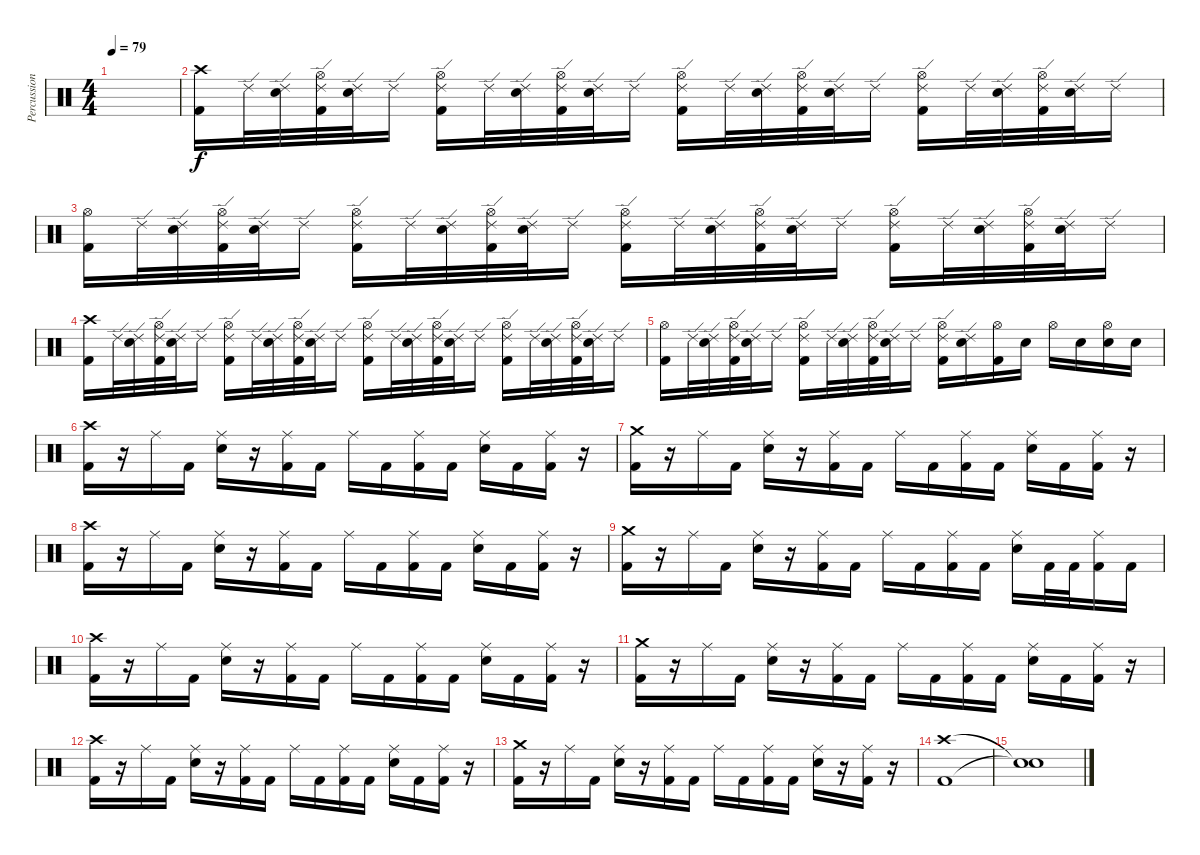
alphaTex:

\track ("Percussion" "Percussion") {instrument percussion}
\staff {score}
\articulation defaults
\ts (4 4)
\tempo 79
\clef neutral
\ks c
|
("Crash high (hit)" "Kick (hit) 2").16 "Ride (edge) 2".32 ("Ride (edge) 2" "Electric Snare (hit)").32 ("Hi-Hat (open)" "Ride (edge) 2" "Kick (hit) 2").32 ("Ride (edge) 2" "Electric Snare (hit)").32 "Ride (edge) 2".16 ("Hi-Hat (open)" "Ride (edge) 2" "Kick (hit) 2").16 "Ride (edge) 2".32 ("Ride (edge) 2" "Electric Snare (hit)").32 ("Hi-Hat (open)" "Ride (edge) 2" "Kick (hit) 2").32 ("Ride (edge) 2" "Electric Snare (hit)").32 "Ride (edge) 2".16 ("Hi-Hat (open)" "Ride (edge) 2" "Kick (hit) 2").16 "Ride (edge) 2".32 ("Ride (edge) 2" "Electric Snare (hit)").32 ("Hi-Hat (open)" "Ride (edge) 2" "Kick (hit) 2").32 ("Ride (edge) 2" "Electric Snare (hit)").32 "Ride (edge) 2".16 ("Hi-Hat (open)" "Ride (edge) 2" "Kick (hit) 2").16 "Ride (edge) 2".32 ("Ride (edge) 2" "Electric Snare (hit)").32 ("Hi-Hat (open)" "Ride (edge) 2" "Kick (hit) 2").32 ("Ride (edge) 2" "Electric Snare (hit)").32 "Ride (edge) 2".16 |
("Hi-Hat (open)" "Kick (hit) 2").16 "Ride (edge) 2".32 ("Ride (edge) 2" "Electric Snare (hit)").32 ("Hi-Hat (open)" "Ride (edge) 2" "Kick (hit) 2").32 ("Ride (edge) 2" "Electric Snare (hit)").32 "Ride (edge) 2".16 ("Hi-Hat (open)" "Ride (edge) 2" "Kick (hit) 2").16 "Ride (edge) 2".32 ("Ride (edge) 2" "Electric Snare (hit)").32 ("Hi-Hat (open)" "Ride (edge) 2" "Kick (hit) 2").32 ("Ride (edge) 2" "Electric Snare (hit)").32 "Ride (edge) 2".16 ("Hi-Hat (open)" "Ride (edge) 2" "Kick (hit) 2").16 "Ride (edge) 2".32 ("Ride (edge) 2" "Electric Snare (hit)").32 ("Hi-Hat (open)" "Ride (edge) 2" "Kick (hit) 2").32 ("Ride (edge) 2" "Electric Snare (hit)").32 "Ride (edge) 2".16 ("Hi-Hat (open)" "Ride (edge) 2" "Kick (hit) 2").16 "Ride (edge) 2".32 ("Ride (edge) 2" "Electric Snare (hit)").32 ("Hi-Hat (open)" "Ride (edge) 2" "Kick (hit) 2").32 ("Ride (edge) 2" "Electric Snare (hit)").32 "Ride (edge) 2".16 |
("Crash high (hit)" "Kick (hit) 2").16 "Ride (edge) 2".32 ("Ride (edge) 2" "Electric Snare (hit)").32 ("Hi-Hat (open)" "Ride (edge) 2" "Kick (hit) 2").32 ("Ride (edge) 2" "Electric Snare (hit)").32 "Ride (edge) 2".16 ("Hi-Hat (open)" "Ride (edge) 2" "Kick (hit) 2").16 "Ride (edge) 2".32 ("Ride (edge) 2" "Electric Snare (hit)").32 ("Hi-Hat (open)" "Ride (edge) 2" "Kick (hit) 2").32 ("Ride (edge) 2" "Electric Snare (hit)").32 "Ride (edge) 2".16 ("Hi-Hat (open)" "Ride (edge) 2" "Kick (hit) 2").16 "Ride (edge) 2".32 ("Ride (edge) 2" "Electric Snare (hit)").32 ("Hi-Hat (open)" "Ride (edge) 2" "Kick (hit) 2").32 ("Ride (edge) 2" "Electric Snare (hit)").32 "Ride (edge) 2".16 ("Hi-Hat (open)" "Ride (edge) 2" "Kick (hit) 2").16 "Ride (edge) 2".32 ("Ride (edge) 2" "Electric Snare (hit)").32 ("Hi-Hat (open)" "Ride (edge) 2" "Kick (hit) 2").32 ("Ride (edge) 2" "Electric Snare (hit)").32 "Ride (edge) 2".16 |
("Hi-Hat (open)" "Kick (hit) 2").16 "Ride (edge) 2".32 ("Ride (edge) 2" "Electric Snare (hit)").32 ("Hi-Hat (open)" "Ride (edge) 2" "Kick (hit) 2").32 ("Ride (edge) 2" "Electric Snare (hit)").32 "Ride (edge) 2".16 ("Hi-Hat (open)" "Ride (edge) 2" "Kick (hit) 2").16 "Ride (edge) 2".32 ("Ride (edge) 2" "Electric Snare (hit)").32 ("Hi-Hat (open)" "Ride (edge) 2" "Kick (hit) 2").32 ("Ride (edge) 2" "Electric Snare (hit)").32 "Ride (edge) 2".16 ("Hi-Hat (open)" "Ride (edge) 2" "Kick (hit) 2").16 ("Ride (edge) 2" "Electric Snare (hit)").16 ("Hi-Hat (open)" "Kick (hit) 2").16 "Electric Snare (hit)".16 "Hi-Hat (open)".16 "Electric Snare (hit)".16 ("Hi-Hat (open)" "Electric Snare (hit)").16 "Electric Snare (hit)".16 |
("Crash high (hit)" "Kick (hit) 2").16 r.16 "Ride (middle)".16 "Kick (hit) 2".16 ("Ride (middle)" "Electric Snare (hit)").16 r.16 ("Ride (middle)" "Kick (hit) 2").16 "Kick (hit) 2".16 "Ride (middle)".16 "Kick (hit) 2".16 ("Ride (middle)" "Kick (hit) 2").16 "Kick (hit) 2".16 ("Ride (middle)" "Electric Snare (hit)").16 "Kick (hit) 2".16 ("Ride (middle)" "Kick (hit) 2").16 r.16 |
("Crash medium (hit)" "Kick (hit) 2").16 r.16 "Ride (middle)".16 "Kick (hit) 2".16 ("Ride (middle)" "Electric Snare (hit)").16 r.16 ("Ride (middle)" "Kick (hit) 2").16 "Kick (hit) 2".16 "Ride (middle)".16 "Kick (hit) 2".16 ("Ride (middle)" "Kick (hit) 2").16 "Kick (hit) 2".16 ("Ride (middle)" "Electric Snare (hit)").16 "Kick (hit) 2".16 ("Ride (middle)" "Kick (hit) 2").16 r.16 |
("Crash high (hit)" "Kick (hit) 2").16 r.16 "Ride (middle)".16 "Kick (hit) 2".16 ("Ride (middle)" "Electric Snare (hit)").16 r.16 ("Ride (middle)" "Kick (hit) 2").16 "Kick (hit) 2".16 "Ride (middle)".16 "Kick (hit) 2".16 ("Ride (middle)" "Kick (hit) 2").16 "Kick (hit) 2".16 ("Ride (middle)" "Electric Snare (hit)").16 "Kick (hit) 2".16 ("Ride (middle)" "Kick (hit) 2").16 r.16 |
("Crash medium (hit)" "Kick (hit) 2").16 r.16 "Ride (middle)".16 "Kick (hit) 2".16 ("Ride (middle)" "Electric Snare (hit)").16 r.16 ("Ride (middle)" "Kick (hit) 2").16 "Kick (hit) 2".16 "Ride (middle)".16 "Kick (hit) 2".16 ("Ride (middle)" "Kick (hit) 2").16 "Kick (hit) 2".16 ("Ride (middle)" "Electric Snare (hit)").16 "Kick (hit) 2".32 "Kick (hit) 2".32 ("Ride (middle)" "Kick (hit) 2").16 "Kick (hit) 2".16 |
("Crash high (hit)" "Kick (hit) 2").16 r.16 "Ride (middle)".16 "Kick (hit) 2".16 ("Ride (middle)" "Electric Snare (hit)").16 r.16 ("Ride (middle)" "Kick (hit) 2").16 "Kick (hit) 2".16 "Ride (middle)".16 "Kick (hit) 2".16 ("Ride (middle)" "Kick (hit) 2").16 "Kick (hit) 2".16 ("Ride (middle)" "Electric Snare (hit)").16 "Kick (hit) 2".16 ("Ride (middle)" "Kick (hit) 2").16 r.16 |
("Crash medium (hit)" "Kick (hit) 2").16 r.16 "Ride (middle)".16 "Kick (hit) 2".16 ("Ride (middle)" "Electric Snare (hit)").16 r.16 ("Ride (middle)" "Kick (hit) 2").16 "Kick (hit) 2".16 "Ride (middle)".16 "Kick (hit) 2".16 ("Ride (middle)" "Kick (hit) 2").16 "Kick (hit) 2".16 ("Ride (middle)" "Electric Snare (hit)").16 "Kick (hit) 2".16 ("Ride (middle)" "Kick (hit) 2").16 r.16 |
("Crash high (hit)" "Kick (hit) 2").16 r.16 "Ride (middle)".16 "Kick (hit) 2".16 ("Ride (middle)" "Electric Snare (hit)").16 r.16 ("Ride (middle)" "Kick (hit) 2").16 "Kick (hit) 2".16 "Ride (middle)".16 "Kick (hit) 2".16 ("Ride (middle)" "Kick (hit) 2").16 "Kick (hit) 2".16 ("Ride (middle)" "Electric Snare (hit)").16 "Kick (hit) 2".16 ("Ride (middle)" "Kick (hit) 2").16 r.16 |
("Crash medium (hit)" "Kick (hit) 2").16 r.16 "Ride (middle)".16 "Kick (hit) 2".16 ("Ride (middle)" "Electric Snare (hit)").16 r.16 ("Ride (middle)" "Kick (hit) 2").16 "Kick (hit) 2".16 "Ride (middle)".16 "Kick (hit) 2".16 ("Ride (middle)" "Kick (hit) 2").16 "Kick (hit) 2".16 ("Ride (middle)" "Electric Snare (hit)").16 r.16 ("Ride (middle)" "Kick (hit) 2").16 r.16 |
("Crash high (hit)" "Kick (hit) 2").1{volume 0} |
("Snare (hit)"{t} "Snare (hit)"{t}).1
